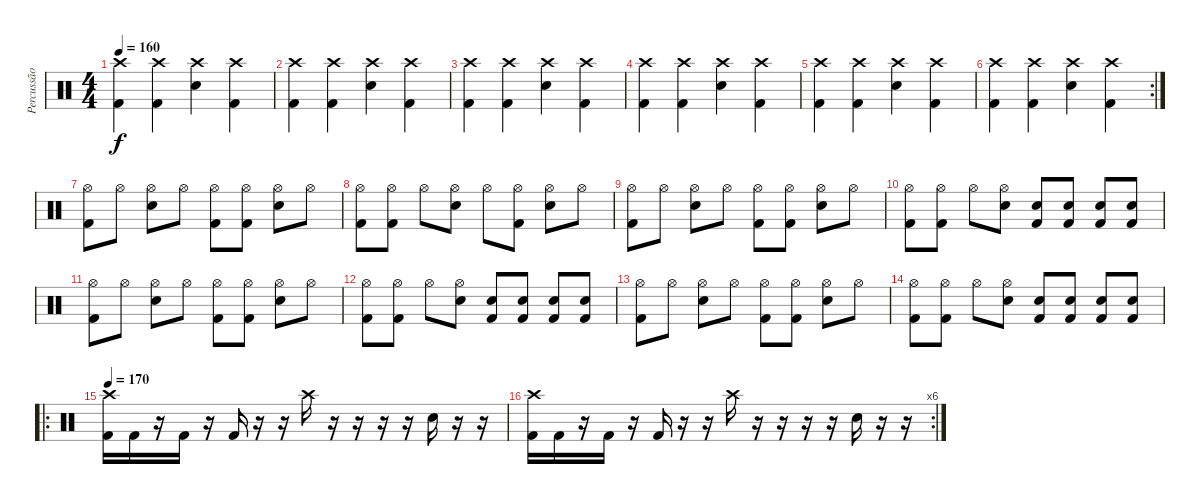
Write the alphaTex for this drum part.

\track ("Percussão" "Percussão") {instrument percussion}
\staff {score}
\articulation defaults
\ts (4 4)
\tempo 160
\clef neutral
\ks c
("Crash high (hit)" "Kick (hit) 2").4{dy f} ("Crash high (hit)" "Kick (hit) 2").4 ("Crash high (hit)" "Electric Snare (hit)").4 ("Crash high (hit)" "Kick (hit) 2").4 |
("Crash high (hit)" "Kick (hit) 2").4 ("Crash high (hit)" "Kick (hit) 2").4 ("Crash high (hit)" "Electric Snare (hit)").4 ("Crash high (hit)" "Kick (hit) 2").4 |
("Crash high (hit)" "Kick (hit) 2").4 ("Crash high (hit)" "Kick (hit) 2").4 ("Crash high (hit)" "Electric Snare (hit)").4 ("Crash high (hit)" "Kick (hit) 2").4 |
("Crash high (hit)" "Kick (hit) 2").4 ("Crash high (hit)" "Kick (hit) 2").4 ("Crash high (hit)" "Electric Snare (hit)").4 ("Crash high (hit)" "Kick (hit) 2").4 |
("Crash high (hit)" "Kick (hit) 2").4 ("Crash high (hit)" "Kick (hit) 2").4 ("Crash high (hit)" "Electric Snare (hit)").4 ("Crash high (hit)" "Kick (hit) 2").4 |
\rc 2
("Crash high (hit)" "Kick (hit) 2").4 ("Crash high (hit)" "Kick (hit) 2").4 ("Crash high (hit)" "Electric Snare (hit)").4 ("Crash high (hit)" "Kick (hit) 2").4 |
("Hi-Hat (open)" "Kick (hit) 2").8 "Hi-Hat (open)".8 ("Hi-Hat (open)" "Electric Snare (hit)").8 "Hi-Hat (open)".8 ("Hi-Hat (open)" "Kick (hit) 2").8 ("Hi-Hat (open)" "Kick (hit) 2").8 ("Hi-Hat (open)" "Electric Snare (hit)").8 "Hi-Hat (open)".8 |
("Hi-Hat (open)" "Kick (hit) 2").8 ("Hi-Hat (open)" "Kick (hit) 2").8 "Hi-Hat (open)".8 ("Hi-Hat (open)" "Electric Snare (hit)").8 "Hi-Hat (open)".8 ("Hi-Hat (open)" "Kick (hit) 2").8 ("Hi-Hat (open)" "Electric Snare (hit)").8 "Hi-Hat (open)".8 |
("Hi-Hat (open)" "Kick (hit) 2").8 "Hi-Hat (open)".8 ("Hi-Hat (open)" "Electric Snare (hit)").8 "Hi-Hat (open)".8 ("Hi-Hat (open)" "Kick (hit) 2").8 ("Hi-Hat (open)" "Kick (hit) 2").8 ("Hi-Hat (open)" "Electric Snare (hit)").8 "Hi-Hat (open)".8 |
("Hi-Hat (open)" "Kick (hit) 2").8 ("Hi-Hat (open)" "Kick (hit) 2").8 "Hi-Hat (open)".8 ("Hi-Hat (open)" "Electric Snare (hit)").8 ("Electric Snare (hit)" "Kick (hit) 2").8 ("Electric Snare (hit)" "Kick (hit) 2").8 ("Electric Snare (hit)" "Kick (hit) 2").8 ("Electric Snare (hit)" "Kick (hit) 2").8 |
("Hi-Hat (open)" "Kick (hit) 2").8 "Hi-Hat (open)".8 ("Hi-Hat (open)" "Electric Snare (hit)").8 "Hi-Hat (open)".8 ("Hi-Hat (open)" "Kick (hit) 2").8 ("Hi-Hat (open)" "Kick (hit) 2").8 ("Hi-Hat (open)" "Electric Snare (hit)").8 "Hi-Hat (open)".8 |
("Hi-Hat (open)" "Kick (hit) 2").8 ("Hi-Hat (open)" "Kick (hit) 2").8 "Hi-Hat (open)".8 ("Hi-Hat (open)" "Electric Snare (hit)").8 ("Electric Snare (hit)" "Kick (hit) 2").8 ("Electric Snare (hit)" "Kick (hit) 2").8 ("Electric Snare (hit)" "Kick (hit) 2").8 ("Electric Snare (hit)" "Kick (hit) 2").8 |
("Hi-Hat (open)" "Kick (hit) 2").8 "Hi-Hat (open)".8 ("Hi-Hat (open)" "Electric Snare (hit)").8 "Hi-Hat (open)".8 ("Hi-Hat (open)" "Kick (hit) 2").8 ("Hi-Hat (open)" "Kick (hit) 2").8 ("Hi-Hat (open)" "Electric Snare (hit)").8 "Hi-Hat (open)".8 |
("Hi-Hat (open)" "Kick (hit) 2").8 ("Hi-Hat (open)" "Kick (hit) 2").8 "Hi-Hat (open)".8 ("Hi-Hat (open)" "Electric Snare (hit)").8 ("Electric Snare (hit)" "Kick (hit) 2").8 ("Electric Snare (hit)" "Kick (hit) 2").8 ("Electric Snare (hit)" "Kick (hit) 2").8 ("Electric Snare (hit)" "Kick (hit) 2").8 |
\ro
\tempo 170
("Crash high (hit)" "Kick (hit) 2").16 "Kick (hit) 2".16 r.16 "Kick (hit) 2".16 r.16 "Kick (hit) 2".16 r.16 r.16 "Crash high (hit)".16 r.16 r.16 r.16 r.16 "Electric Snare (hit)".16 r.16 r.16 |
\rc 6
("Crash high (hit)" "Kick (hit) 2").16 "Kick (hit) 2".16 r.16 "Kick (hit) 2".16 r.16 "Kick (hit) 2".16 r.16 r.16 "Crash high (hit)".16 r.16 r.16 r.16 r.16 "Electric Snare (hit)".16 r.16 r.16
